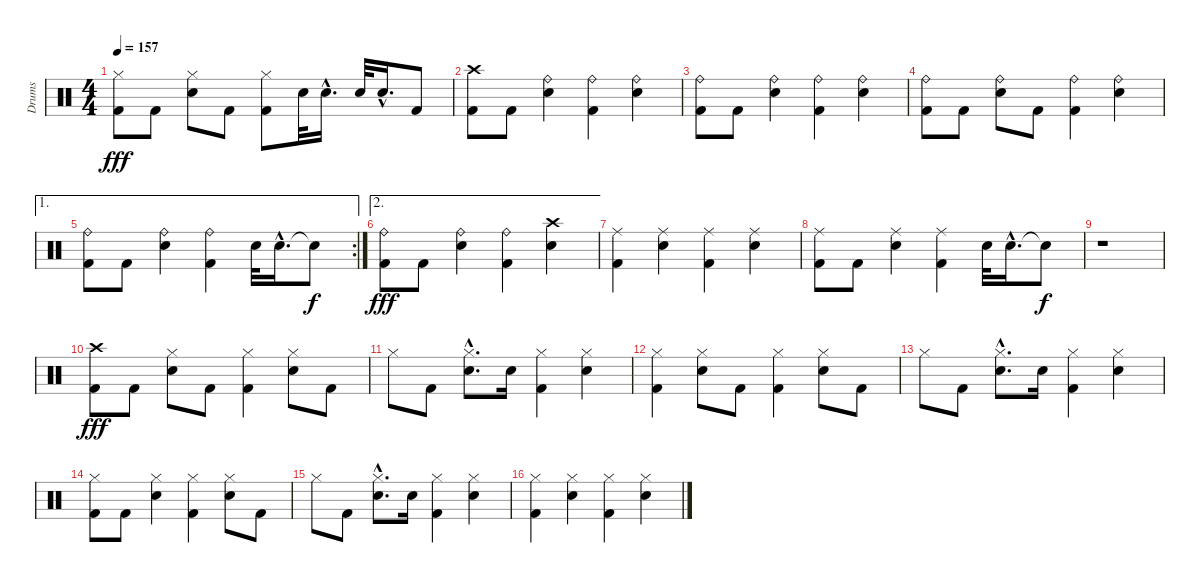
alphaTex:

\track ("Drums" "Drums") {instrument percussion}
\staff {score}
\articulation defaults
\ts (4 4)
\tempo 157
\clef neutral
\ks c
("Hi-Hat (closed)" "Kick (hit) 2").8{dy fff} "Kick (hit) 2".8 ("Hi-Hat (closed)" "Snare (hit) 2").8 "Kick (hit) 2".8 ("Hi-Hat (closed)" "Kick (hit) 2").8 "Snare (hit) 2".32 "Snare (hit) 2"{hac}.16{d} "Snare (hit) 2".32 "Snare (hit) 2"{hac}.16{d} "Kick (hit) 2".8 |
("Crash high (hit)" "Kick (hit) 2").8 "Kick (hit) 2".8 ("Ride (bell)" "Snare (hit) 2").4 ("Ride (bell)" "Kick (hit) 2").4 ("Ride (bell)" "Snare (hit) 2").4 |
("Ride (bell)" "Kick (hit) 2").8 "Kick (hit) 2".8 ("Ride (bell)" "Snare (hit) 2").4 ("Ride (bell)" "Kick (hit) 2").4 ("Ride (bell)" "Snare (hit) 2").4 |
("Ride (bell)" "Kick (hit) 2").8 "Kick (hit) 2".8 ("Ride (bell)" "Snare (hit) 2").8 "Kick (hit) 2".8 ("Ride (bell)" "Kick (hit) 2").4 ("Ride (bell)" "Snare (hit) 2").4 |
\ae 1
\rc 2
("Ride (bell)" "Kick (hit) 2").8 "Kick (hit) 2".8 ("Ride (bell)" "Snare (hit) 2").4 ("Ride (bell)" "Kick (hit) 2").4 "Snare (hit) 2".32 "Snare (hit) 2"{hac}.16{d} "Snare (hit)"{t}.8{dy f} |
\ae 2
("Ride (bell)" "Kick (hit) 2").8{dy fff} "Kick (hit) 2".8 ("Ride (bell)" "Snare (hit) 2").4 ("Ride (bell)" "Kick (hit) 2").4 ("Crash high (hit)" "Snare (hit) 2").4 |
("Ride (middle)" "Kick (hit) 2").4 ("Ride (middle)" "Snare (hit) 2").4 ("Ride (middle)" "Kick (hit) 2").4 ("Ride (middle)" "Snare (hit) 2").4 |
("Ride (middle)" "Kick (hit) 2").8 "Kick (hit) 2".8 ("Ride (middle)" "Snare (hit) 2").4 ("Ride (middle)" "Kick (hit) 2").4 "Snare (hit) 2".32 "Snare (hit) 2"{hac}.16{d} "Snare (hit)"{t}.8{dy f} |
r.1 |
("Crash high (hit)" "Kick (hit) 2").8{dy fff} "Kick (hit) 2".8 ("Hi-Hat (closed)" "Snare (hit) 2").8 "Kick (hit) 2".8 ("Hi-Hat (closed)" "Kick (hit) 2").4 ("Hi-Hat (closed)" "Snare (hit) 2").8 "Kick (hit) 2".8 |
"Hi-Hat (closed)".8 "Kick (hit) 2".8 ("Hi-Hat (closed)"{hac} "Snare (hit) 2"{hac}).8{d} "Snare (hit) 2".16 ("Hi-Hat (closed)" "Kick (hit) 2").4 ("Hi-Hat (closed)" "Snare (hit) 2").4 |
("Hi-Hat (closed)" "Kick (hit) 2").4 ("Hi-Hat (closed)" "Snare (hit) 2").8 "Kick (hit) 2".8 ("Hi-Hat (closed)" "Kick (hit) 2").4 ("Hi-Hat (closed)" "Snare (hit) 2").8 "Kick (hit) 2".8 |
"Hi-Hat (closed)".8 "Kick (hit) 2".8 ("Hi-Hat (closed)"{hac} "Snare (hit) 2"{hac}).8{d} "Snare (hit) 2".16 ("Hi-Hat (closed)" "Kick (hit) 2").4 ("Hi-Hat (closed)" "Snare (hit) 2").4 |
("Hi-Hat (closed)" "Kick (hit) 2").8 "Kick (hit) 2".8 ("Hi-Hat (closed)" "Snare (hit) 2").4 ("Hi-Hat (closed)" "Kick (hit) 2").4 ("Hi-Hat (closed)" "Snare (hit) 2").8 "Kick (hit) 2".8 |
"Hi-Hat (closed)".8 "Kick (hit) 2".8 ("Hi-Hat (closed)"{hac} "Snare (hit) 2"{hac}).8{d} "Snare (hit) 2".16 ("Hi-Hat (closed)" "Kick (hit) 2").4 ("Hi-Hat (closed)" "Snare (hit) 2").4 |
("Hi-Hat (closed)" "Kick (hit) 2").4 ("Hi-Hat (closed)" "Snare (hit) 2").4 ("Hi-Hat (closed)" "Kick (hit) 2").4 ("Hi-Hat (closed)" "Snare (hit) 2").4
